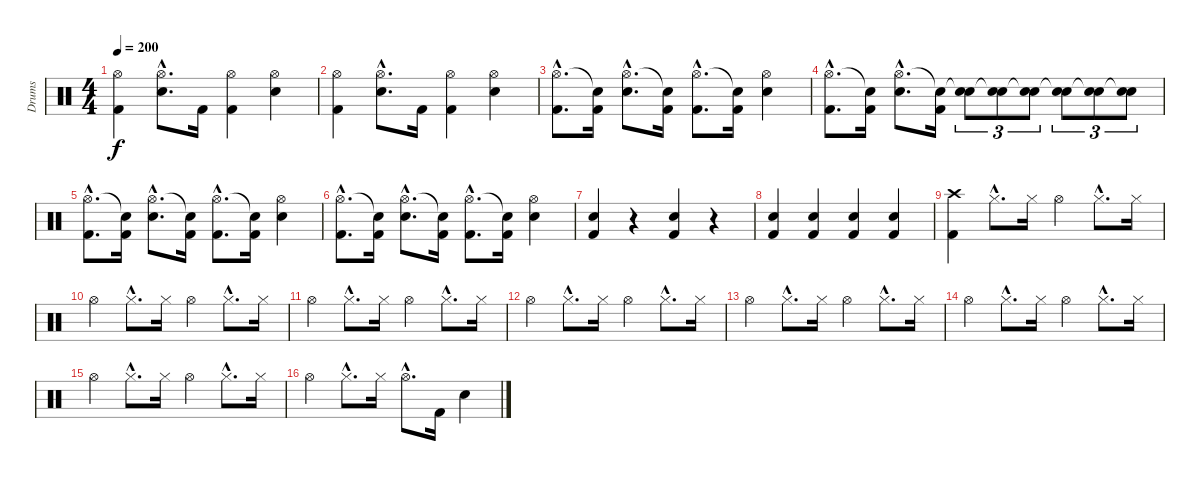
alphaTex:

\track ("Drums" "Drums") {instrument percussion}
\staff {score}
\articulation defaults
\ts (4 4)
\tempo 200
\clef neutral
\ks c
("Hi-Hat (open)" "Kick (hit) 2").4{dy f} ("Hi-Hat (open)"{hac} "Electric Snare (hit)"{hac}).8{d} "Kick (hit) 2".16 ("Hi-Hat (open)" "Kick (hit) 2").4 ("Hi-Hat (open)" "Electric Snare (hit)").4 |
("Hi-Hat (open)" "Kick (hit) 2").4 ("Hi-Hat (open)"{hac} "Electric Snare (hit)"{hac}).8{d} "Kick (hit) 2".16 ("Hi-Hat (open)" "Kick (hit) 2").4 ("Hi-Hat (open)" "Electric Snare (hit)").4 |
("Hi-Hat (open)"{hac} "Kick (hit) 2"{hac}).8{d} ("Snare (hit)"{t} "Kick (hit) 2").16 ("Hi-Hat (open)"{hac} "Electric Snare (hit)"{hac}).8{d} ("Snare (hit)"{t} "Kick (hit) 2").16 ("Hi-Hat (open)"{hac} "Kick (hit) 2"{hac}).8{d} ("Snare (hit)"{t} "Kick (hit) 2").16 ("Hi-Hat (open)" "Electric Snare (hit)").4 |
("Hi-Hat (open)"{hac} "Kick (hit) 2"{hac}).8{d} ("Snare (hit)"{t} "Kick (hit) 2").16 ("Hi-Hat (open)"{hac} "Electric Snare (hit)"{hac}).8{d} ("Snare (hit)"{t} "Kick (hit) 2").16 ("Snare (hit)"{t} "Electric Snare (hit)").8{tu (3 2)} ("Snare (hit)"{t} "Electric Snare (hit)").8{tu (3 2)} ("Snare (hit)"{t} "Electric Snare (hit)").8{tu (3 2)} ("Snare (hit)"{t} "Electric Snare (hit)").8{tu (3 2)} ("Snare (hit)"{t} "Electric Snare (hit)").8{tu (3 2)} ("Snare (hit)"{t} "Electric Snare (hit)").8{tu (3 2)} |
("Hi-Hat (open)"{hac} "Kick (hit) 2"{hac}).8{d} ("Snare (hit)"{t} "Kick (hit) 2").16 ("Hi-Hat (open)"{hac} "Electric Snare (hit)"{hac}).8{d} ("Snare (hit)"{t} "Kick (hit) 2").16 ("Hi-Hat (open)"{hac} "Kick (hit) 2"{hac}).8{d} ("Snare (hit)"{t} "Kick (hit) 2").16 ("Hi-Hat (open)" "Electric Snare (hit)").4 |
("Hi-Hat (open)"{hac} "Kick (hit) 2"{hac}).8{d} ("Snare (hit)"{t} "Kick (hit) 2").16 ("Hi-Hat (open)"{hac} "Electric Snare (hit)"{hac}).8{d} ("Snare (hit)"{t} "Kick (hit) 2").16 ("Hi-Hat (open)"{hac} "Kick (hit) 2"{hac}).8{d} ("Snare (hit)"{t} "Kick (hit) 2").16 ("Hi-Hat (open)" "Electric Snare (hit)").4 |
("Electric Snare (hit)" "Kick (hit) 2").4 r.4 ("Electric Snare (hit)" "Kick (hit) 2").4 r.4 |
("Electric Snare (hit)" "Kick (hit) 2").4 ("Electric Snare (hit)" "Kick (hit) 2").4 ("Electric Snare (hit)" "Kick (hit) 2").4 ("Electric Snare (hit)" "Kick (hit) 2").4 |
("Crash high (hit)" "Kick (hit) 2").4 "Hi-Hat (closed)"{hac}.8{d} "Hi-Hat (closed)".16 "Hi-Hat (open)".4 "Hi-Hat (closed)"{hac}.8{d} "Hi-Hat (closed)".16 |
"Hi-Hat (open)".4 "Hi-Hat (closed)"{hac}.8{d} "Hi-Hat (closed)".16 "Hi-Hat (open)".4 "Hi-Hat (closed)"{hac}.8{d} "Hi-Hat (closed)".16 |
"Hi-Hat (open)".4 "Hi-Hat (closed)"{hac}.8{d} "Hi-Hat (closed)".16 "Hi-Hat (open)".4 "Hi-Hat (closed)"{hac}.8{d} "Hi-Hat (closed)".16 |
"Hi-Hat (open)".4 "Hi-Hat (closed)"{hac}.8{d} "Hi-Hat (closed)".16 "Hi-Hat (open)".4 "Hi-Hat (closed)"{hac}.8{d} "Hi-Hat (closed)".16 |
"Hi-Hat (open)".4 "Hi-Hat (closed)"{hac}.8{d} "Hi-Hat (closed)".16 "Hi-Hat (open)".4 "Hi-Hat (closed)"{hac}.8{d} "Hi-Hat (closed)".16 |
"Hi-Hat (open)".4 "Hi-Hat (closed)"{hac}.8{d} "Hi-Hat (closed)".16 "Hi-Hat (open)".4 "Hi-Hat (closed)"{hac}.8{d} "Hi-Hat (closed)".16 |
"Hi-Hat (open)".4 "Hi-Hat (closed)"{hac}.8{d} "Hi-Hat (closed)".16 "Hi-Hat (open)".4 "Hi-Hat (closed)"{hac}.8{d} "Hi-Hat (closed)".16 |
"Hi-Hat (open)".4 "Hi-Hat (closed)"{hac}.8{d} "Hi-Hat (closed)".16 "Hi-Hat (open)"{hac}.8{d} "Kick (hit) 2".16 "Electric Snare (hit)".4
